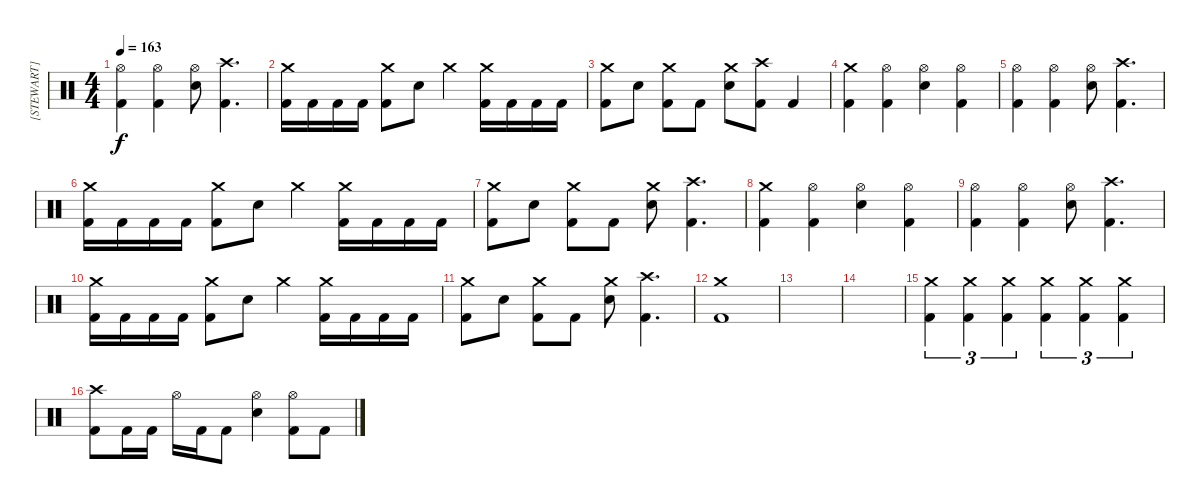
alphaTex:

\track ("[STEWART]" "[STEWART]") {instrument percussion}
\staff {score}
\articulation defaults
\ts (4 4)
\tempo 163
\clef neutral
\ks c
("Hi-Hat (open)" "Kick (hit) 2").4{dy f} ("Hi-Hat (open)" "Kick (hit) 2").4 ("Hi-Hat (open)" "Electric Snare (hit)").8 ("Crash high (hit)" "Kick (hit) 2").4{d} |
("Crash medium (hit)" "Kick (hit) 2").16 "Kick (hit) 2".16 "Kick (hit) 2".16 "Kick (hit) 2".16 ("Crash medium (hit)" "Kick (hit) 2").8 "Electric Snare (hit)".8 "Crash medium (hit)".4 ("Crash medium (hit)" "Kick (hit) 2").16 "Kick (hit) 2".16 "Kick (hit) 2".16 "Kick (hit) 2".16 |
("Crash medium (hit)" "Kick (hit) 2").8 "Electric Snare (hit)".8 ("Crash medium (hit)" "Kick (hit) 2").8 "Kick (hit) 2".8 ("Crash medium (hit)" "Electric Snare (hit)").8 ("Crash high (hit)" "Kick (hit) 2").8 "Kick (hit) 2".4 |
("Crash medium (hit)" "Kick (hit) 2").4 ("Hi-Hat (open)" "Kick (hit) 2").4 ("Hi-Hat (open)" "Electric Snare (hit)").4 ("Hi-Hat (open)" "Kick (hit) 2").4 |
("Hi-Hat (open)" "Kick (hit) 2").4 ("Hi-Hat (open)" "Kick (hit) 2").4 ("Hi-Hat (open)" "Electric Snare (hit)").8 ("Crash high (hit)" "Kick (hit) 2").4{d} |
("Crash medium (hit)" "Kick (hit) 2").16 "Kick (hit) 2".16 "Kick (hit) 2".16 "Kick (hit) 2".16 ("Crash medium (hit)" "Kick (hit) 2").8 "Electric Snare (hit)".8 "Crash medium (hit)".4 ("Crash medium (hit)" "Kick (hit) 2").16 "Kick (hit) 2".16 "Kick (hit) 2".16 "Kick (hit) 2".16 |
("Crash medium (hit)" "Kick (hit) 2").8 "Electric Snare (hit)".8 ("Crash medium (hit)" "Kick (hit) 2").8 "Kick (hit) 2".8 ("Crash medium (hit)" "Electric Snare (hit)").8 ("Crash high (hit)" "Kick (hit) 2").4{d} |
("Crash medium (hit)" "Kick (hit) 2").4 ("Hi-Hat (open)" "Kick (hit) 2").4 ("Hi-Hat (open)" "Electric Snare (hit)").4 ("Hi-Hat (open)" "Kick (hit) 2").4 |
("Hi-Hat (open)" "Kick (hit) 2").4 ("Hi-Hat (open)" "Kick (hit) 2").4 ("Hi-Hat (open)" "Electric Snare (hit)").8 ("Crash high (hit)" "Kick (hit) 2").4{d} |
("Crash medium (hit)" "Kick (hit) 2").16 "Kick (hit) 2".16 "Kick (hit) 2".16 "Kick (hit) 2".16 ("Crash medium (hit)" "Kick (hit) 2").8 "Electric Snare (hit)".8 "Crash medium (hit)".4 ("Crash medium (hit)" "Kick (hit) 2").16 "Kick (hit) 2".16 "Kick (hit) 2".16 "Kick (hit) 2".16 |
("Crash medium (hit)" "Kick (hit) 2").8 "Electric Snare (hit)".8 ("Crash medium (hit)" "Kick (hit) 2").8 "Kick (hit) 2".8 ("Crash medium (hit)" "Electric Snare (hit)").8 ("Crash high (hit)" "Kick (hit) 2").4{d} |
("Crash medium (hit)" "Kick (hit) 2").1 |
|
|
("Crash medium (hit)" "Kick (hit) 2").4{tu (3 2)} ("Crash medium (hit)" "Kick (hit) 2").4{tu (3 2)} ("Crash medium (hit)" "Kick (hit) 2").4{tu (3 2)} ("Crash medium (hit)" "Kick (hit) 2").4{tu (3 2)} ("Crash medium (hit)" "Kick (hit) 2").4{tu (3 2)} ("Crash medium (hit)" "Kick (hit) 2").4{tu (3 2)} |
("Crash high (hit)" "Kick (hit) 2").8 "Kick (hit) 2".16 "Kick (hit) 2".16 "Hi-Hat (open)".16 "Kick (hit) 2".16 "Kick (hit) 2".8 ("Hi-Hat (open)" "Electric Snare (hit)").4 ("Hi-Hat (open)" "Kick (hit) 2").8 "Kick (hit) 2".8
